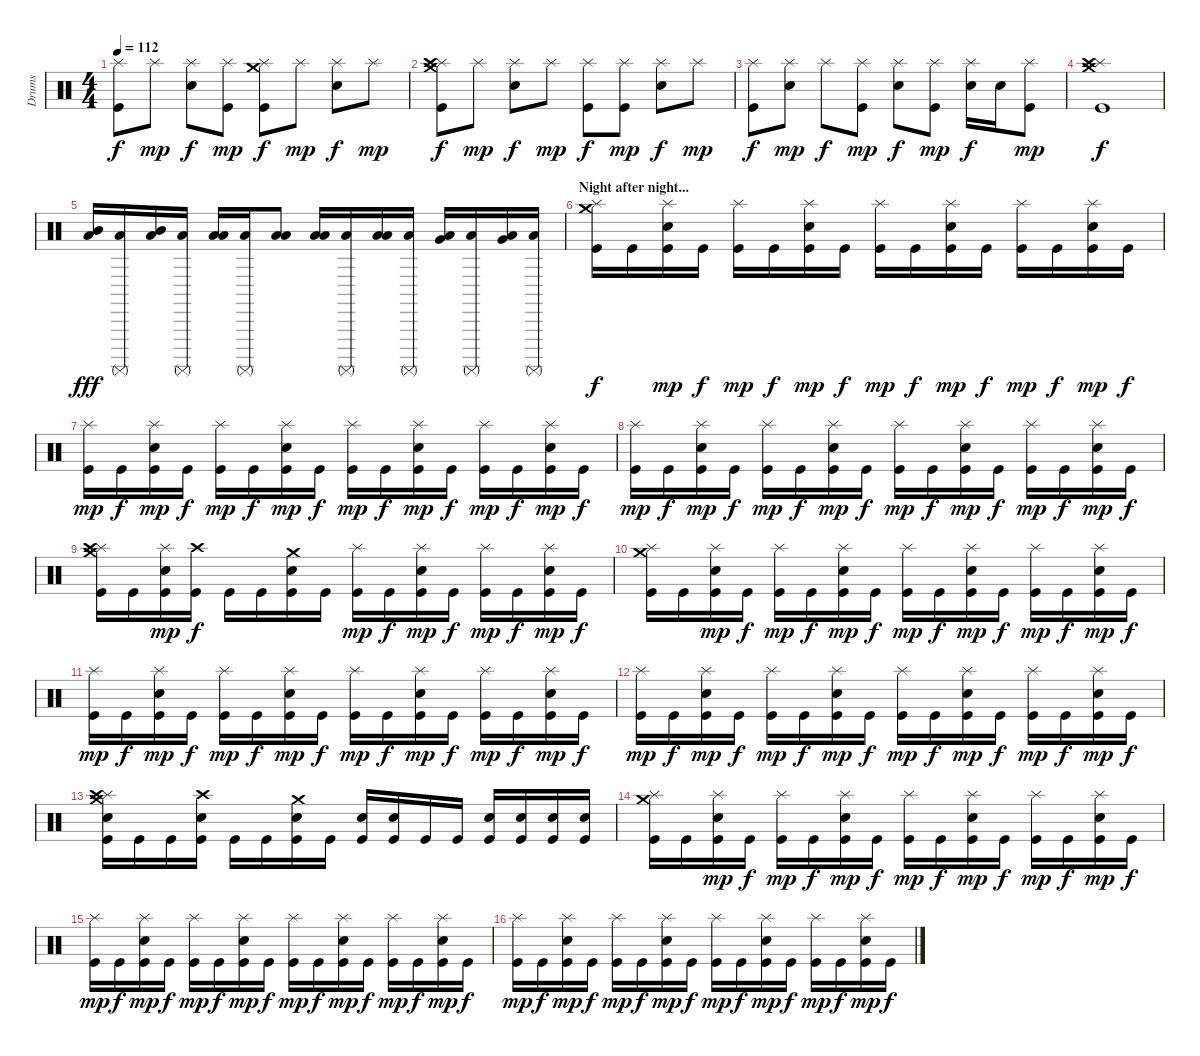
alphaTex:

\track ("Drums" "Drums") {instrument percussion}
\staff {score}
\articulation defaults
\ts (4 4)
\tempo 112
\clef neutral
\ks c
("Splash (hit)" "Kick (hit)").8{dy f} "Splash (hit)".8{dy mp} ("Splash (hit)" "Electric Snare (hit)").8{dy f} ("Splash (hit)" "Kick (hit)").8{dy mp} ("Crash medium (hit)" "Splash (hit)" "Kick (hit)").8{dy f} "Splash (hit)".8{dy mp} ("Splash (hit)" "Electric Snare (hit)").8{dy f} "Splash (hit)".8{dy mp} |
("Crash medium (hit)" "Splash (hit)" "Crash high (hit)" "Kick (hit)").8{dy f} "Splash (hit)".8{dy mp} ("Splash (hit)" "Electric Snare (hit)").8{dy f} "Splash (hit)".8{dy mp} ("Splash (hit)" "Kick (hit)").8{dy f} ("Splash (hit)" "Kick (hit)").8{dy mp} ("Splash (hit)" "Electric Snare (hit)").8{dy f} "Splash (hit)".8{dy mp} |
("Splash (hit)" "Kick (hit)").8{dy f} ("Splash (hit)" "Electric Snare (hit)").8{dy mp} "Splash (hit)".8{dy f} ("Splash (hit)" "Kick (hit)").8{dy mp} ("Splash (hit)" "Electric Snare (hit)").8{dy f} ("Splash (hit)" "Kick (hit)").8{dy mp} ("Splash (hit)" "Electric Snare (hit)").16{dy f} "Electric Snare (hit)".16 ("Splash (hit)" "Kick (hit)").8{dy mp} |
("Crash medium (hit)" "Splash (hit)" "Crash high (hit)" "Kick (hit)").1{dy f} |
("Mid Tom (hit)" "Low Floor Tom (hit)").16{dy fff} ("Surdo (mute)" "Low Floor Tom (hit)").16 ("Mid Tom (hit)" "Low Floor Tom (hit)").16 ("Surdo (mute)" "Low Floor Tom (hit)").16 ("Low Tom (hit)" "Low Floor Tom (hit)").16 ("Surdo (mute)" "Low Floor Tom (hit)").16 ("Low Tom (hit)" "Low Floor Tom (hit)").8 ("Low Tom (hit)" "Low Floor Tom (hit)").16 ("Surdo (mute)" "Low Floor Tom (hit)").16 ("Low Tom (hit)" "Low Floor Tom (hit)").16 ("Surdo (mute)" "Low Floor Tom (hit)").16 ("Very Low Tom (hit)" "Low Floor Tom (hit)").16 ("Surdo (mute)" "Low Floor Tom (hit)").16 ("Very Low Tom (hit)" "Low Floor Tom (hit)").16 ("Surdo (mute)" "Low Floor Tom (hit)").16 |
\section ("" "Night after night...")
("Crash medium (hit)" "Splash (hit)" "Kick (hit)").16{dy f} "Kick (hit)".16 ("Splash (hit)" "Electric Snare (hit)" "Kick (hit)").16{dy mp} "Kick (hit)".16{dy f} ("Splash (hit)" "Kick (hit)").16{dy mp} "Kick (hit)".16{dy f} ("Splash (hit)" "Electric Snare (hit)" "Kick (hit)").16{dy mp} "Kick (hit)".16{dy f} ("Splash (hit)" "Kick (hit)").16{dy mp} "Kick (hit)".16{dy f} ("Splash (hit)" "Electric Snare (hit)" "Kick (hit)").16{dy mp} "Kick (hit)".16{dy f} ("Splash (hit)" "Kick (hit)").16{dy mp} "Kick (hit)".16{dy f} ("Splash (hit)" "Electric Snare (hit)" "Kick (hit)").16{dy mp} "Kick (hit)".16{dy f} |
("Splash (hit)" "Kick (hit)").16{dy mp} "Kick (hit)".16{dy f} ("Splash (hit)" "Electric Snare (hit)" "Kick (hit)").16{dy mp} "Kick (hit)".16{dy f} ("Splash (hit)" "Kick (hit)").16{dy mp} "Kick (hit)".16{dy f} ("Splash (hit)" "Electric Snare (hit)" "Kick (hit)").16{dy mp} "Kick (hit)".16{dy f} ("Splash (hit)" "Kick (hit)").16{dy mp} "Kick (hit)".16{dy f} ("Splash (hit)" "Electric Snare (hit)" "Kick (hit)").16{dy mp} "Kick (hit)".16{dy f} ("Splash (hit)" "Kick (hit)").16{dy mp} "Kick (hit)".16{dy f} ("Splash (hit)" "Electric Snare (hit)" "Kick (hit)").16{dy mp} "Kick (hit)".16{dy f} |
("Splash (hit)" "Kick (hit)").16{dy mp} "Kick (hit)".16{dy f} ("Splash (hit)" "Electric Snare (hit)" "Kick (hit)").16{dy mp} "Kick (hit)".16{dy f} ("Splash (hit)" "Kick (hit)").16{dy mp} "Kick (hit)".16{dy f} ("Splash (hit)" "Electric Snare (hit)" "Kick (hit)").16{dy mp} "Kick (hit)".16{dy f} ("Splash (hit)" "Kick (hit)").16{dy mp} "Kick (hit)".16{dy f} ("Splash (hit)" "Electric Snare (hit)" "Kick (hit)").16{dy mp} "Kick (hit)".16{dy f} ("Splash (hit)" "Kick (hit)").16{dy mp} "Kick (hit)".16{dy f} ("Splash (hit)" "Electric Snare (hit)" "Kick (hit)").16{dy mp} "Kick (hit)".16{dy f} |
("Crash medium (hit)" "Splash (hit)" "Crash high (hit)" "Kick (hit)").16 "Kick (hit)".16 ("Splash (hit)" "Electric Snare (hit)" "Kick (hit)").16{dy mp} ("Crash high (hit)" "Kick (hit)").16{dy f} "Kick (hit)".16 "Kick (hit)".16 ("Crash medium (hit)" "Electric Snare (hit)" "Kick (hit)").16 "Kick (hit)".16 ("Splash (hit)" "Kick (hit)").16{dy mp} "Kick (hit)".16{dy f} ("Splash (hit)" "Electric Snare (hit)" "Kick (hit)").16{dy mp} "Kick (hit)".16{dy f} ("Splash (hit)" "Kick (hit)").16{dy mp} "Kick (hit)".16{dy f} ("Splash (hit)" "Electric Snare (hit)" "Kick (hit)").16{dy mp} "Kick (hit)".16{dy f} |
("Crash medium (hit)" "Splash (hit)" "Kick (hit)").16 "Kick (hit)".16 ("Splash (hit)" "Electric Snare (hit)" "Kick (hit)").16{dy mp} "Kick (hit)".16{dy f} ("Splash (hit)" "Kick (hit)").16{dy mp} "Kick (hit)".16{dy f} ("Splash (hit)" "Electric Snare (hit)" "Kick (hit)").16{dy mp} "Kick (hit)".16{dy f} ("Splash (hit)" "Kick (hit)").16{dy mp} "Kick (hit)".16{dy f} ("Splash (hit)" "Electric Snare (hit)" "Kick (hit)").16{dy mp} "Kick (hit)".16{dy f} ("Splash (hit)" "Kick (hit)").16{dy mp} "Kick (hit)".16{dy f} ("Splash (hit)" "Electric Snare (hit)" "Kick (hit)").16{dy mp} "Kick (hit)".16{dy f} |
("Splash (hit)" "Kick (hit)").16{dy mp} "Kick (hit)".16{dy f} ("Splash (hit)" "Electric Snare (hit)" "Kick (hit)").16{dy mp} "Kick (hit)".16{dy f} ("Splash (hit)" "Kick (hit)").16{dy mp} "Kick (hit)".16{dy f} ("Splash (hit)" "Electric Snare (hit)" "Kick (hit)").16{dy mp} "Kick (hit)".16{dy f} ("Splash (hit)" "Kick (hit)").16{dy mp} "Kick (hit)".16{dy f} ("Splash (hit)" "Electric Snare (hit)" "Kick (hit)").16{dy mp} "Kick (hit)".16{dy f} ("Splash (hit)" "Kick (hit)").16{dy mp} "Kick (hit)".16{dy f} ("Splash (hit)" "Electric Snare (hit)" "Kick (hit)").16{dy mp} "Kick (hit)".16{dy f} |
("Splash (hit)" "Kick (hit)").16{dy mp} "Kick (hit)".16{dy f} ("Splash (hit)" "Electric Snare (hit)" "Kick (hit)").16{dy mp} "Kick (hit)".16{dy f} ("Splash (hit)" "Kick (hit)").16{dy mp} "Kick (hit)".16{dy f} ("Splash (hit)" "Electric Snare (hit)" "Kick (hit)").16{dy mp} "Kick (hit)".16{dy f} ("Splash (hit)" "Kick (hit)").16{dy mp} "Kick (hit)".16{dy f} ("Splash (hit)" "Electric Snare (hit)" "Kick (hit)").16{dy mp} "Kick (hit)".16{dy f} ("Splash (hit)" "Kick (hit)").16{dy mp} "Kick (hit)".16{dy f} ("Splash (hit)" "Electric Snare (hit)" "Kick (hit)").16{dy mp} "Kick (hit)".16{dy f} |
("Crash medium (hit)" "Splash (hit)" "Crash high (hit)" "Electric Snare (hit)" "Kick (hit)").16 "Kick (hit)".16 "Kick (hit)".16 ("Crash high (hit)" "Electric Snare (hit)" "Kick (hit)").16 "Kick (hit)".16 "Kick (hit)".16 ("Crash medium (hit)" "Electric Snare (hit)" "Kick (hit)").16 "Kick (hit)".16 ("Electric Snare (hit)" "Kick (hit)").16 ("Electric Snare (hit)" "Kick (hit)").16 "Kick (hit)".16 "Kick (hit)".16 ("Electric Snare (hit)" "Kick (hit)").16 ("Electric Snare (hit)" "Kick (hit)").16 ("Electric Snare (hit)" "Kick (hit)").16 ("Electric Snare (hit)" "Kick (hit)").16 |
("Crash medium (hit)" "Splash (hit)" "Kick (hit)").16 "Kick (hit)".16 ("Splash (hit)" "Electric Snare (hit)" "Kick (hit)").16{dy mp} "Kick (hit)".16{dy f} ("Splash (hit)" "Kick (hit)").16{dy mp} "Kick (hit)".16{dy f} ("Splash (hit)" "Electric Snare (hit)" "Kick (hit)").16{dy mp} "Kick (hit)".16{dy f} ("Splash (hit)" "Kick (hit)").16{dy mp} "Kick (hit)".16{dy f} ("Splash (hit)" "Electric Snare (hit)" "Kick (hit)").16{dy mp} "Kick (hit)".16{dy f} ("Splash (hit)" "Kick (hit)").16{dy mp} "Kick (hit)".16{dy f} ("Splash (hit)" "Electric Snare (hit)" "Kick (hit)").16{dy mp} "Kick (hit)".16{dy f} |
("Splash (hit)" "Kick (hit)").16{dy mp} "Kick (hit)".16{dy f} ("Splash (hit)" "Electric Snare (hit)" "Kick (hit)").16{dy mp} "Kick (hit)".16{dy f} ("Splash (hit)" "Kick (hit)").16{dy mp} "Kick (hit)".16{dy f} ("Splash (hit)" "Electric Snare (hit)" "Kick (hit)").16{dy mp} "Kick (hit)".16{dy f} ("Splash (hit)" "Kick (hit)").16{dy mp} "Kick (hit)".16{dy f} ("Splash (hit)" "Electric Snare (hit)" "Kick (hit)").16{dy mp} "Kick (hit)".16{dy f} ("Splash (hit)" "Kick (hit)").16{dy mp} "Kick (hit)".16{dy f} ("Splash (hit)" "Electric Snare (hit)" "Kick (hit)").16{dy mp} "Kick (hit)".16{dy f} |
("Splash (hit)" "Kick (hit)").16{dy mp} "Kick (hit)".16{dy f} ("Splash (hit)" "Electric Snare (hit)" "Kick (hit)").16{dy mp} "Kick (hit)".16{dy f} ("Splash (hit)" "Kick (hit)").16{dy mp} "Kick (hit)".16{dy f} ("Splash (hit)" "Electric Snare (hit)" "Kick (hit)").16{dy mp} "Kick (hit)".16{dy f} ("Splash (hit)" "Kick (hit)").16{dy mp} "Kick (hit)".16{dy f} ("Splash (hit)" "Electric Snare (hit)" "Kick (hit)").16{dy mp} "Kick (hit)".16{dy f} ("Splash (hit)" "Kick (hit)").16{dy mp} "Kick (hit)".16{dy f} ("Splash (hit)" "Electric Snare (hit)" "Kick (hit)").16{dy mp} "Kick (hit)".16{dy f}
